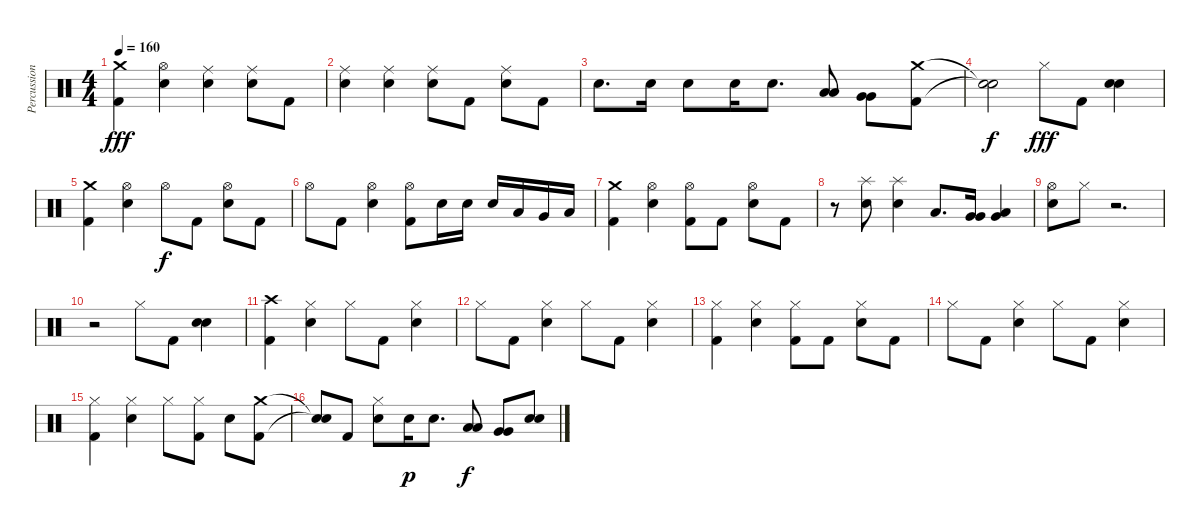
\track ("Percussion" "Percussion") {instrument percussion}
\staff {score}
\articulation defaults
\ts (4 4)
\tempo 160
\clef neutral
\ks c
("Crash medium (hit)" "Kick (hit) 2").4{dy fff} ("Hi-Hat (open)" "Electric Snare (hit)").4 ("Ride (middle)" "Electric Snare (hit)").4 ("Ride (middle)" "Electric Snare (hit)").8 "Kick (hit) 2".8 |
("Ride (middle)" "Electric Snare (hit)").4 ("Ride (middle)" "Electric Snare (hit)").4 ("Ride (middle)" "Electric Snare (hit)").8 "Kick (hit) 2".8 ("Ride (middle)" "Electric Snare (hit)").8 "Kick (hit) 2".8 |
"Electric Snare (hit)".8{d} "Electric Snare (hit)".16 "Electric Snare (hit)".8 "Electric Snare (hit)".16 "Electric Snare (hit)".8{d} ("Low Tom (hit)" "Low Tom (hit)").8 ("Very Low Tom (hit)" "Very Low Tom (hit)").8 ("Crash medium (hit)" "Kick (hit) 2").8 |
("Snare (hit)"{t} "Snare (hit)"{t}).2{dy f} "Hi-Hat (closed)".8{dy fff} "Kick (hit) 2".8 ("Electric Snare (hit)" "Electric Snare (hit)").4 |
("Crash medium (hit)" "Kick (hit) 2").4 ("Hi-Hat (open)" "Electric Snare (hit)").4 "Hi-Hat (open)".8{dy f} "Kick (hit) 2".8 ("Hi-Hat (open)" "Electric Snare (hit)").8 "Kick (hit) 2".8 |
"Hi-Hat (open)".8 "Kick (hit) 2".8 ("Hi-Hat (open)" "Electric Snare (hit)").4 ("Hi-Hat (open)" "Kick (hit) 2").8 "Electric Snare (hit)".16 "Electric Snare (hit)".16 "Electric Snare (hit)".16 "Low Tom (hit)".16 "Very Low Tom (hit)".16 "Low Floor Tom (hit)".16 |
("Crash medium (hit)" "Kick (hit) 2").4 ("Hi-Hat (open)" "Electric Snare (hit)").4 ("Hi-Hat (open)" "Kick (hit) 2").8 "Kick (hit) 2".8 ("Hi-Hat (open)" "Electric Snare (hit)").8 "Kick (hit) 2".8 |
r.8 ("Splash (hit)" "Electric Snare (hit)").8 ("Splash (hit)" "Electric Snare (hit)").4 "Low Tom (hit)".8{d} ("Very Low Tom (hit)" "Very Low Tom (hit)").16 ("Low Floor Tom (hit)" "Very Low Tom (hit)").4 |
("Hi-Hat (open)" "Electric Snare (hit)").8 "Hi-Hat (closed)".8 r.2{d} |
r.2 "Hi-Hat (closed)".8 "Kick (hit) 2".8 ("Electric Snare (hit)" "Electric Snare (hit)").4 |
("Crash high (hit)" "Kick (hit) 2").4 ("Hi-Hat (closed)" "Electric Snare (hit)").4 "Hi-Hat (closed)".8 "Kick (hit) 2".8 ("Hi-Hat (closed)" "Electric Snare (hit)").4 |
"Hi-Hat (closed)".8 "Kick (hit) 2".8 ("Hi-Hat (closed)" "Electric Snare (hit)").4 "Hi-Hat (closed)".8 "Kick (hit) 2".8 ("Hi-Hat (closed)" "Electric Snare (hit)").4 |
("Hi-Hat (closed)" "Kick (hit) 2").4 ("Hi-Hat (closed)" "Electric Snare (hit)").4 ("Hi-Hat (closed)" "Kick (hit) 2").8 "Kick (hit) 2".8 ("Hi-Hat (closed)" "Electric Snare (hit)").8 "Kick (hit) 2".8 |
"Hi-Hat (closed)".8 "Kick (hit) 2".8 ("Hi-Hat (closed)" "Electric Snare (hit)").4 "Hi-Hat (closed)".8 "Kick (hit) 2".8 ("Hi-Hat (closed)" "Electric Snare (hit)").4 |
("Hi-Hat (closed)" "Kick (hit) 2").4 ("Hi-Hat (closed)" "Electric Snare (hit)").4 "Hi-Hat (closed)".8 ("Hi-Hat (closed)" "Kick (hit) 2").8 "Electric Snare (hit)".8 ("Crash medium (hit)" "Kick (hit) 2").8 |
("Snare (hit)"{t} "Snare (hit)"{t}).8 "Kick (hit) 2".8 ("Hi-Hat (closed)" "Electric Snare (hit)").8 "Electric Snare (hit)".16{dy p} "Electric Snare (hit)".8{d} ("Low Tom (hit)" "Low Tom (hit)").8{dy f} ("Very Low Tom (hit)" "Very Low Tom (hit)").8 ("Electric Snare (hit)" "Electric Snare (hit)").8
